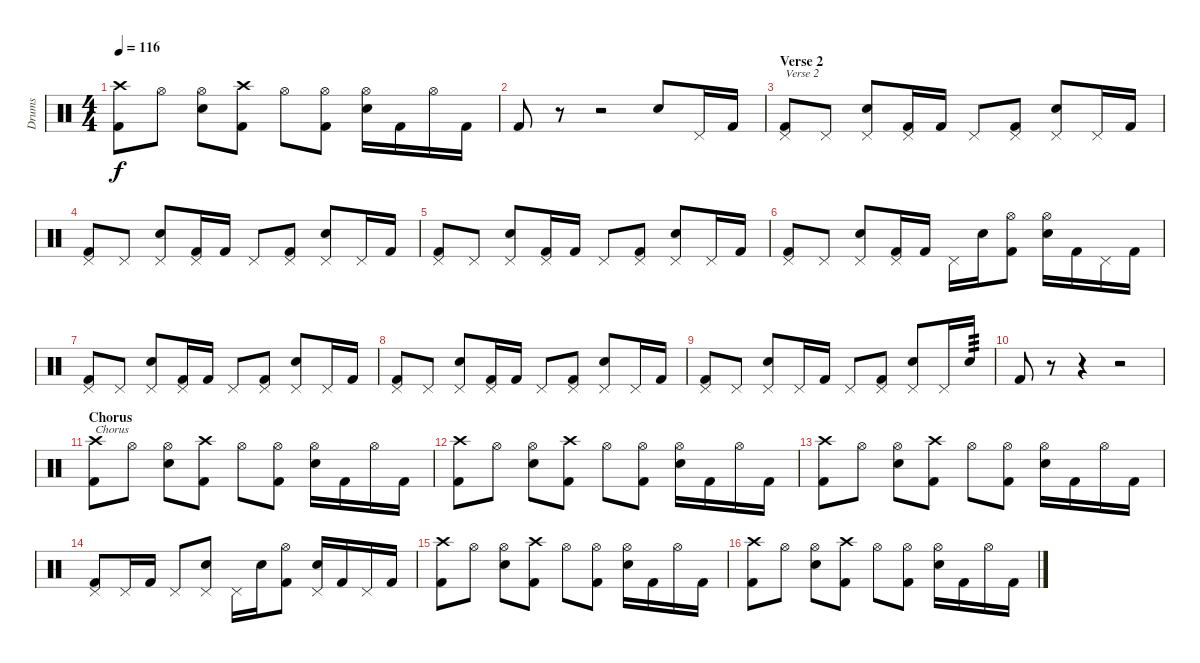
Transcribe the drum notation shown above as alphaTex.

\track ("Drums" "Drums") {instrument percussion}
\staff {score}
\articulation defaults
\ts (4 4)
\tempo 116
\clef neutral
\ks c
("Crash high (hit)" "Kick (hit) 2").8{dy f} "Hi-Hat (open)".8 ("Hi-Hat (open)" "Electric Snare (hit)").8 ("Crash high (hit)" "Kick (hit) 2").8 "Hi-Hat (open)".8 ("Hi-Hat (open)" "Kick (hit) 2").8 ("Hi-Hat (open)" "Electric Snare (hit)").16 "Kick (hit) 2".16 "Hi-Hat (open)".16 "Kick (hit) 2".16 |
"Kick (hit) 2".8 r.8 r.2 "Electric Snare (hit)".8 "Pedal Hi-Hat (hit)".16 "Kick (hit) 2".16 |
\section ("" "Verse 2")
("Pedal Hi-Hat (hit)" "Kick (hit) 2").8{txt "Verse 2"} "Pedal Hi-Hat (hit)".8 ("Pedal Hi-Hat (hit)" "Electric Snare (hit)").8 ("Pedal Hi-Hat (hit)" "Kick (hit) 2").16 "Kick (hit) 2".16 "Pedal Hi-Hat (hit)".8 ("Pedal Hi-Hat (hit)" "Kick (hit) 2").8 ("Pedal Hi-Hat (hit)" "Electric Snare (hit)").8 "Pedal Hi-Hat (hit)".16 "Kick (hit) 2".16 |
("Pedal Hi-Hat (hit)" "Kick (hit) 2").8 "Pedal Hi-Hat (hit)".8 ("Pedal Hi-Hat (hit)" "Electric Snare (hit)").8 ("Pedal Hi-Hat (hit)" "Kick (hit) 2").16 "Kick (hit) 2".16 "Pedal Hi-Hat (hit)".8 ("Pedal Hi-Hat (hit)" "Kick (hit) 2").8 ("Pedal Hi-Hat (hit)" "Electric Snare (hit)").8 "Pedal Hi-Hat (hit)".16 "Kick (hit) 2".16 |
("Pedal Hi-Hat (hit)" "Kick (hit) 2").8 "Pedal Hi-Hat (hit)".8 ("Pedal Hi-Hat (hit)" "Electric Snare (hit)").8 ("Pedal Hi-Hat (hit)" "Kick (hit) 2").16 "Kick (hit) 2".16 "Pedal Hi-Hat (hit)".8 ("Pedal Hi-Hat (hit)" "Kick (hit) 2").8 ("Pedal Hi-Hat (hit)" "Electric Snare (hit)").8 "Pedal Hi-Hat (hit)".16 "Kick (hit) 2".16 |
("Pedal Hi-Hat (hit)" "Kick (hit) 2").8 "Pedal Hi-Hat (hit)".8 ("Pedal Hi-Hat (hit)" "Electric Snare (hit)").8 ("Pedal Hi-Hat (hit)" "Kick (hit) 2").16 "Kick (hit) 2".16 "Pedal Hi-Hat (hit)".16 "Electric Snare (hit)".16 ("Hi-Hat (open)" "Kick (hit) 2").8 ("Hi-Hat (open)" "Electric Snare (hit)").16 "Kick (hit) 2".16 "Pedal Hi-Hat (hit)".16 "Kick (hit) 2".16 |
("Pedal Hi-Hat (hit)" "Kick (hit) 2").8 "Pedal Hi-Hat (hit)".8 ("Pedal Hi-Hat (hit)" "Electric Snare (hit)").8 ("Pedal Hi-Hat (hit)" "Kick (hit) 2").16 "Kick (hit) 2".16 "Pedal Hi-Hat (hit)".8 ("Pedal Hi-Hat (hit)" "Kick (hit) 2").8 ("Pedal Hi-Hat (hit)" "Electric Snare (hit)").8 "Pedal Hi-Hat (hit)".16 "Kick (hit) 2".16 |
("Pedal Hi-Hat (hit)" "Kick (hit) 2").8 "Pedal Hi-Hat (hit)".8 ("Pedal Hi-Hat (hit)" "Electric Snare (hit)").8 ("Pedal Hi-Hat (hit)" "Kick (hit) 2").16 "Kick (hit) 2".16 "Pedal Hi-Hat (hit)".8 ("Pedal Hi-Hat (hit)" "Kick (hit) 2").8 ("Pedal Hi-Hat (hit)" "Electric Snare (hit)").8 "Pedal Hi-Hat (hit)".16 "Kick (hit) 2".16 |
("Pedal Hi-Hat (hit)" "Kick (hit) 2").8 "Pedal Hi-Hat (hit)".8 ("Pedal Hi-Hat (hit)" "Electric Snare (hit)").8 "Pedal Hi-Hat (hit)".16 "Kick (hit) 2".16 "Pedal Hi-Hat (hit)".8 ("Pedal Hi-Hat (hit)" "Kick (hit) 2").8 ("Pedal Hi-Hat (hit)" "Electric Snare (hit)").8 "Pedal Hi-Hat (hit)".16 "Electric Snare (hit)".16{tp 3} |
"Kick (hit) 2".8 r.8 r.4 r.2 |
\section ("" "Chorus")
("Crash high (hit)" "Kick (hit) 2").8{txt "Chorus"} "Hi-Hat (open)".8 ("Hi-Hat (open)" "Electric Snare (hit)").8 ("Crash high (hit)" "Kick (hit) 2").8 "Hi-Hat (open)".8 ("Hi-Hat (open)" "Kick (hit) 2").8 ("Hi-Hat (open)" "Electric Snare (hit)").16 "Kick (hit) 2".16 "Hi-Hat (open)".16 "Kick (hit) 2".16 |
("Crash high (hit)" "Kick (hit) 2").8 "Hi-Hat (open)".8 ("Hi-Hat (open)" "Electric Snare (hit)").8 ("Crash high (hit)" "Kick (hit) 2").8 "Hi-Hat (open)".8 ("Hi-Hat (open)" "Kick (hit) 2").8 ("Hi-Hat (open)" "Electric Snare (hit)").16 "Kick (hit) 2".16 "Hi-Hat (open)".16 "Kick (hit) 2".16 |
("Crash high (hit)" "Kick (hit) 2").8 "Hi-Hat (open)".8 ("Hi-Hat (open)" "Electric Snare (hit)").8 ("Crash high (hit)" "Kick (hit) 2").8 "Hi-Hat (open)".8 ("Hi-Hat (open)" "Kick (hit) 2").8 ("Hi-Hat (open)" "Electric Snare (hit)").16 "Kick (hit) 2".16 "Hi-Hat (open)".16 "Kick (hit) 2".16 |
("Pedal Hi-Hat (hit)" "Kick (hit) 2").8 "Pedal Hi-Hat (hit)".16 "Kick (hit) 2".16 "Pedal Hi-Hat (hit)".8 ("Pedal Hi-Hat (hit)" "Electric Snare (hit)").8 "Pedal Hi-Hat (hit)".16 "Electric Snare (hit)".16 ("Hi-Hat (open)" "Kick (hit) 2").8 ("Pedal Hi-Hat (hit)" "Electric Snare (hit)").16 "Kick (hit) 2".16 "Pedal Hi-Hat (hit)".16 "Kick (hit) 2".16 |
("Crash high (hit)" "Kick (hit) 2").8 "Hi-Hat (open)".8 ("Hi-Hat (open)" "Electric Snare (hit)").8 ("Crash high (hit)" "Kick (hit) 2").8 "Hi-Hat (open)".8 ("Hi-Hat (open)" "Kick (hit) 2").8 ("Hi-Hat (open)" "Electric Snare (hit)").16 "Kick (hit) 2".16 "Hi-Hat (open)".16 "Kick (hit) 2".16 |
("Crash high (hit)" "Kick (hit) 2").8 "Hi-Hat (open)".8 ("Hi-Hat (open)" "Electric Snare (hit)").8 ("Crash high (hit)" "Kick (hit) 2").8 "Hi-Hat (open)".8 ("Hi-Hat (open)" "Kick (hit) 2").8 ("Hi-Hat (open)" "Electric Snare (hit)").16 "Kick (hit) 2".16 "Hi-Hat (open)".16 "Kick (hit) 2".16
